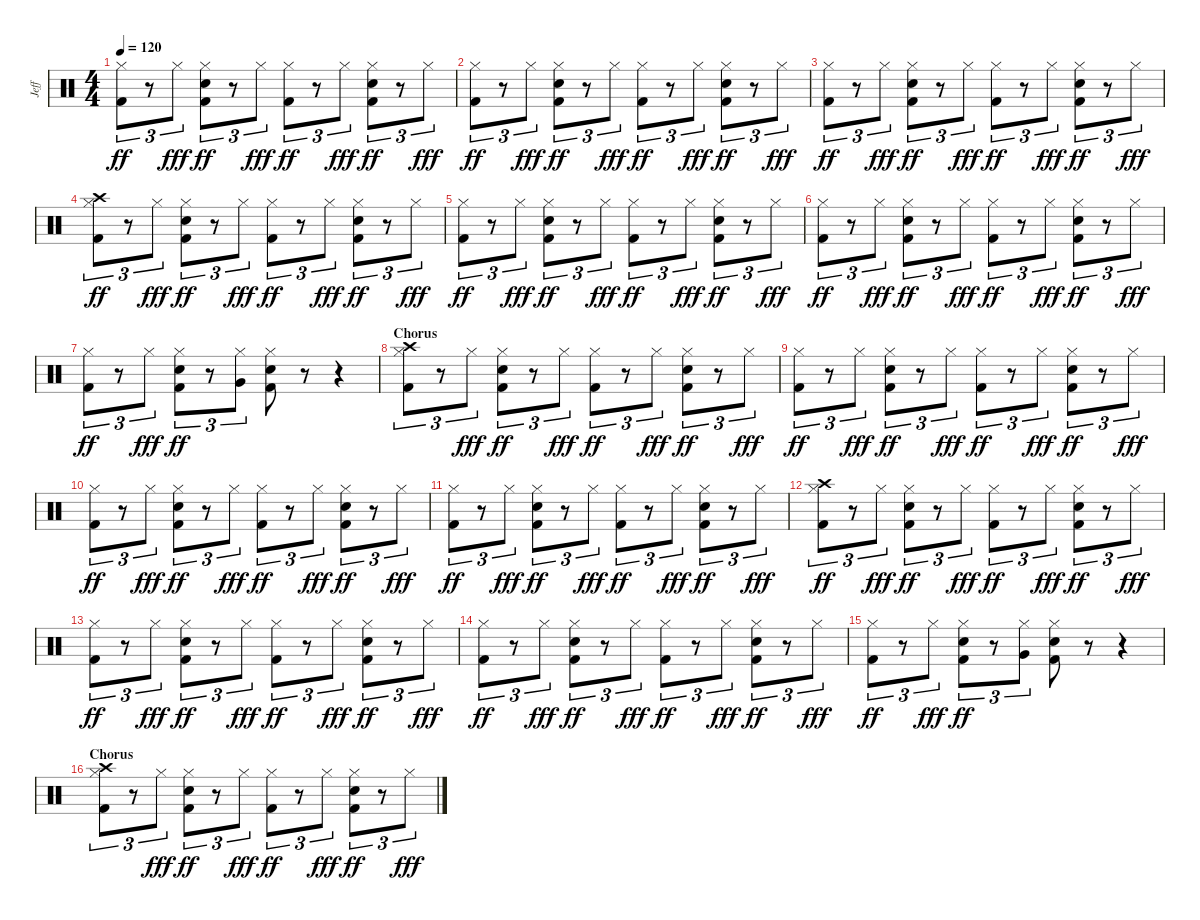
\track ("Jeff" "Jeff") {instrument percussion}
\staff {score}
\articulation defaults
\ts (4 4)
\tempo 120
\clef neutral
\ks c
("Hi-Hat (closed)" "Kick (hit) 2").8{tu (3 2) dy ff} r.8{tu (3 2)} "Hi-Hat (closed)".8{tu (3 2) dy fff} ("Hi-Hat (closed)" "Snare (hit) 2" "Kick (hit) 2").8{tu (3 2) dy ff} r.8{tu (3 2)} "Hi-Hat (closed)".8{tu (3 2) dy fff} ("Hi-Hat (closed)" "Kick (hit) 2").8{tu (3 2) dy ff} r.8{tu (3 2)} "Hi-Hat (closed)".8{tu (3 2) dy fff} ("Hi-Hat (closed)" "Snare (hit) 2" "Kick (hit) 2").8{tu (3 2) dy ff} r.8{tu (3 2)} "Hi-Hat (closed)".8{tu (3 2) dy fff} |
("Hi-Hat (closed)" "Kick (hit) 2").8{tu (3 2) dy ff} r.8{tu (3 2)} "Hi-Hat (closed)".8{tu (3 2) dy fff} ("Hi-Hat (closed)" "Snare (hit) 2" "Kick (hit) 2").8{tu (3 2) dy ff} r.8{tu (3 2)} "Hi-Hat (closed)".8{tu (3 2) dy fff} ("Hi-Hat (closed)" "Kick (hit) 2").8{tu (3 2) dy ff} r.8{tu (3 2)} "Hi-Hat (closed)".8{tu (3 2) dy fff} ("Hi-Hat (closed)" "Snare (hit) 2" "Kick (hit) 2").8{tu (3 2) dy ff} r.8{tu (3 2)} "Hi-Hat (closed)".8{tu (3 2) dy fff} |
("Hi-Hat (closed)" "Kick (hit) 2").8{tu (3 2) dy ff} r.8{tu (3 2)} "Hi-Hat (closed)".8{tu (3 2) dy fff} ("Hi-Hat (closed)" "Snare (hit) 2" "Kick (hit) 2").8{tu (3 2) dy ff} r.8{tu (3 2)} "Hi-Hat (closed)".8{tu (3 2) dy fff} ("Hi-Hat (closed)" "Kick (hit) 2").8{tu (3 2) dy ff} r.8{tu (3 2)} "Hi-Hat (closed)".8{tu (3 2) dy fff} ("Hi-Hat (closed)" "Snare (hit) 2" "Kick (hit) 2").8{tu (3 2) dy ff} r.8{tu (3 2)} "Hi-Hat (closed)".8{tu (3 2) dy fff} |
("Crash high (hit)" "Hi-Hat (closed)" "Kick (hit) 2").8{tu (3 2) dy ff} r.8{tu (3 2)} "Hi-Hat (closed)".8{tu (3 2) dy fff} ("Hi-Hat (closed)" "Snare (hit) 2" "Kick (hit) 2").8{tu (3 2) dy ff} r.8{tu (3 2)} "Hi-Hat (closed)".8{tu (3 2) dy fff} ("Hi-Hat (closed)" "Kick (hit) 2").8{tu (3 2) dy ff} r.8{tu (3 2)} "Hi-Hat (closed)".8{tu (3 2) dy fff} ("Hi-Hat (closed)" "Snare (hit) 2" "Kick (hit) 2").8{tu (3 2) dy ff} r.8{tu (3 2)} "Hi-Hat (closed)".8{tu (3 2) dy fff} |
("Hi-Hat (closed)" "Kick (hit) 2").8{tu (3 2) dy ff} r.8{tu (3 2)} "Hi-Hat (closed)".8{tu (3 2) dy fff} ("Hi-Hat (closed)" "Snare (hit) 2" "Kick (hit) 2").8{tu (3 2) dy ff} r.8{tu (3 2)} "Hi-Hat (closed)".8{tu (3 2) dy fff} ("Hi-Hat (closed)" "Kick (hit) 2").8{tu (3 2) dy ff} r.8{tu (3 2)} "Hi-Hat (closed)".8{tu (3 2) dy fff} ("Hi-Hat (closed)" "Snare (hit) 2" "Kick (hit) 2").8{tu (3 2) dy ff} r.8{tu (3 2)} "Hi-Hat (closed)".8{tu (3 2) dy fff} |
("Hi-Hat (closed)" "Kick (hit) 2").8{tu (3 2) dy ff} r.8{tu (3 2)} "Hi-Hat (closed)".8{tu (3 2) dy fff} ("Hi-Hat (closed)" "Snare (hit) 2" "Kick (hit) 2").8{tu (3 2) dy ff} r.8{tu (3 2)} "Hi-Hat (closed)".8{tu (3 2) dy fff} ("Hi-Hat (closed)" "Kick (hit) 2").8{tu (3 2) dy ff} r.8{tu (3 2)} "Hi-Hat (closed)".8{tu (3 2) dy fff} ("Hi-Hat (closed)" "Snare (hit) 2" "Kick (hit) 2").8{tu (3 2) dy ff} r.8{tu (3 2)} "Hi-Hat (closed)".8{tu (3 2) dy fff} |
("Hi-Hat (closed)" "Kick (hit) 2").8{tu (3 2) dy ff} r.8{tu (3 2)} "Hi-Hat (closed)".8{tu (3 2) dy fff} ("Hi-Hat (closed)" "Snare (hit) 2" "Kick (hit) 2").8{tu (3 2) dy ff} r.8{tu (3 2)} ("Hi-Hat (closed)" "Very Low Tom (hit)").8{tu (3 2)} ("Hi-Hat (closed)" "Snare (hit) 2" "Kick (hit) 2").8 r.8 r.4 |
\section ("" "Chorus")
("Crash high (hit)" "Hi-Hat (closed)" "Kick (hit) 2").8{tu (3 2)} r.8{tu (3 2)} "Hi-Hat (closed)".8{tu (3 2) dy fff} ("Hi-Hat (closed)" "Snare (hit) 2" "Kick (hit) 2").8{tu (3 2) dy ff} r.8{tu (3 2)} "Hi-Hat (closed)".8{tu (3 2) dy fff} ("Hi-Hat (closed)" "Kick (hit) 2").8{tu (3 2) dy ff} r.8{tu (3 2)} "Hi-Hat (closed)".8{tu (3 2) dy fff} ("Hi-Hat (closed)" "Snare (hit) 2" "Kick (hit) 2").8{tu (3 2) dy ff} r.8{tu (3 2)} "Hi-Hat (closed)".8{tu (3 2) dy fff} |
("Hi-Hat (closed)" "Kick (hit) 2").8{tu (3 2) dy ff} r.8{tu (3 2)} "Hi-Hat (closed)".8{tu (3 2) dy fff} ("Hi-Hat (closed)" "Snare (hit) 2" "Kick (hit) 2").8{tu (3 2) dy ff} r.8{tu (3 2)} "Hi-Hat (closed)".8{tu (3 2) dy fff} ("Hi-Hat (closed)" "Kick (hit) 2").8{tu (3 2) dy ff} r.8{tu (3 2)} "Hi-Hat (closed)".8{tu (3 2) dy fff} ("Hi-Hat (closed)" "Snare (hit) 2" "Kick (hit) 2").8{tu (3 2) dy ff} r.8{tu (3 2)} "Hi-Hat (closed)".8{tu (3 2) dy fff} |
("Hi-Hat (closed)" "Kick (hit) 2").8{tu (3 2) dy ff} r.8{tu (3 2)} "Hi-Hat (closed)".8{tu (3 2) dy fff} ("Hi-Hat (closed)" "Snare (hit) 2" "Kick (hit) 2").8{tu (3 2) dy ff} r.8{tu (3 2)} "Hi-Hat (closed)".8{tu (3 2) dy fff} ("Hi-Hat (closed)" "Kick (hit) 2").8{tu (3 2) dy ff} r.8{tu (3 2)} "Hi-Hat (closed)".8{tu (3 2) dy fff} ("Hi-Hat (closed)" "Snare (hit) 2" "Kick (hit) 2").8{tu (3 2) dy ff} r.8{tu (3 2)} "Hi-Hat (closed)".8{tu (3 2) dy fff} |
("Hi-Hat (closed)" "Kick (hit) 2").8{tu (3 2) dy ff} r.8{tu (3 2)} "Hi-Hat (closed)".8{tu (3 2) dy fff} ("Hi-Hat (closed)" "Snare (hit) 2" "Kick (hit) 2").8{tu (3 2) dy ff} r.8{tu (3 2)} "Hi-Hat (closed)".8{tu (3 2) dy fff} ("Hi-Hat (closed)" "Kick (hit) 2").8{tu (3 2) dy ff} r.8{tu (3 2)} "Hi-Hat (closed)".8{tu (3 2) dy fff} ("Hi-Hat (closed)" "Snare (hit) 2" "Kick (hit) 2").8{tu (3 2) dy ff} r.8{tu (3 2)} "Hi-Hat (closed)".8{tu (3 2) dy fff} |
("Crash high (hit)" "Hi-Hat (closed)" "Kick (hit) 2").8{tu (3 2) dy ff} r.8{tu (3 2)} "Hi-Hat (closed)".8{tu (3 2) dy fff} ("Hi-Hat (closed)" "Snare (hit) 2" "Kick (hit) 2").8{tu (3 2) dy ff} r.8{tu (3 2)} "Hi-Hat (closed)".8{tu (3 2) dy fff} ("Hi-Hat (closed)" "Kick (hit) 2").8{tu (3 2) dy ff} r.8{tu (3 2)} "Hi-Hat (closed)".8{tu (3 2) dy fff} ("Hi-Hat (closed)" "Snare (hit) 2" "Kick (hit) 2").8{tu (3 2) dy ff} r.8{tu (3 2)} "Hi-Hat (closed)".8{tu (3 2) dy fff} |
("Hi-Hat (closed)" "Kick (hit) 2").8{tu (3 2) dy ff} r.8{tu (3 2)} "Hi-Hat (closed)".8{tu (3 2) dy fff} ("Hi-Hat (closed)" "Snare (hit) 2" "Kick (hit) 2").8{tu (3 2) dy ff} r.8{tu (3 2)} "Hi-Hat (closed)".8{tu (3 2) dy fff} ("Hi-Hat (closed)" "Kick (hit) 2").8{tu (3 2) dy ff} r.8{tu (3 2)} "Hi-Hat (closed)".8{tu (3 2) dy fff} ("Hi-Hat (closed)" "Snare (hit) 2" "Kick (hit) 2").8{tu (3 2) dy ff} r.8{tu (3 2)} "Hi-Hat (closed)".8{tu (3 2) dy fff} |
("Hi-Hat (closed)" "Kick (hit) 2").8{tu (3 2) dy ff} r.8{tu (3 2)} "Hi-Hat (closed)".8{tu (3 2) dy fff} ("Hi-Hat (closed)" "Snare (hit) 2" "Kick (hit) 2").8{tu (3 2) dy ff} r.8{tu (3 2)} "Hi-Hat (closed)".8{tu (3 2) dy fff} ("Hi-Hat (closed)" "Kick (hit) 2").8{tu (3 2) dy ff} r.8{tu (3 2)} "Hi-Hat (closed)".8{tu (3 2) dy fff} ("Hi-Hat (closed)" "Snare (hit) 2" "Kick (hit) 2").8{tu (3 2) dy ff} r.8{tu (3 2)} "Hi-Hat (closed)".8{tu (3 2) dy fff} |
("Hi-Hat (closed)" "Kick (hit) 2").8{tu (3 2) dy ff} r.8{tu (3 2)} "Hi-Hat (closed)".8{tu (3 2) dy fff} ("Hi-Hat (closed)" "Snare (hit) 2" "Kick (hit) 2").8{tu (3 2) dy ff} r.8{tu (3 2)} ("Hi-Hat (closed)" "Very Low Tom (hit)").8{tu (3 2)} ("Hi-Hat (closed)" "Snare (hit) 2" "Kick (hit) 2").8 r.8 r.4 |
\section ("" "Chorus")
("Crash high (hit)" "Hi-Hat (closed)" "Kick (hit) 2").8{tu (3 2)} r.8{tu (3 2)} "Hi-Hat (closed)".8{tu (3 2) dy fff} ("Hi-Hat (closed)" "Snare (hit) 2" "Kick (hit) 2").8{tu (3 2) dy ff} r.8{tu (3 2)} "Hi-Hat (closed)".8{tu (3 2) dy fff} ("Hi-Hat (closed)" "Kick (hit) 2").8{tu (3 2) dy ff} r.8{tu (3 2)} "Hi-Hat (closed)".8{tu (3 2) dy fff} ("Hi-Hat (closed)" "Snare (hit) 2" "Kick (hit) 2").8{tu (3 2) dy ff} r.8{tu (3 2)} "Hi-Hat (closed)".8{tu (3 2) dy fff}
